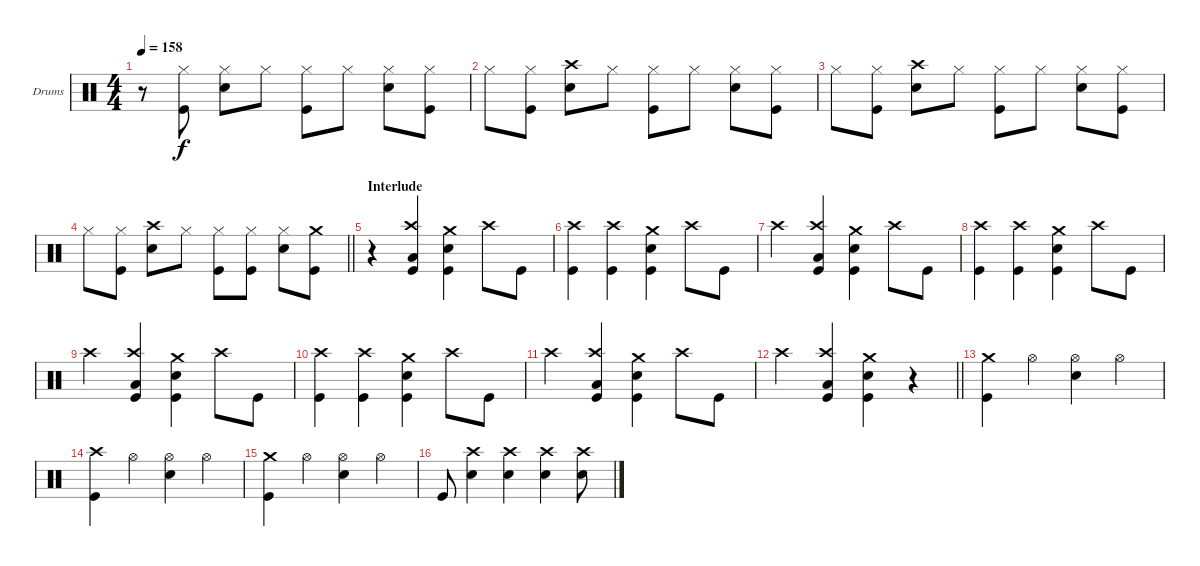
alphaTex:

\bracketExtendMode groupsimilarinstruments
\firstSystemTrackNameOrientation horizontal
\otherSystemsTrackNameOrientation horizontal
\track ("Drumkit" "Drums") {instrument percussion}
\staff {score}
\articulation defaults
\ts (4 4)
\section ("" "")
\tempo 158
\clef neutral
\ks c
r.8{dy f} ("Hi-Hat (closed)" "Kick (hit)").8 ("Hi-Hat (closed)" "Snare (hit) 2").8 "Hi-Hat (closed)".8 ("Hi-Hat (closed)" "Kick (hit)").8 "Hi-Hat (closed)".8 ("Hi-Hat (closed)" "Snare (hit) 2").8 ("Hi-Hat (closed)" "Kick (hit)").8 |
"Hi-Hat (closed)".8 ("Hi-Hat (closed)" "Kick (hit)").8 ("Crash high (hit)" "Snare (hit) 2").8 "Hi-Hat (closed)".8 ("Hi-Hat (closed)" "Kick (hit)").8 "Hi-Hat (closed)".8 ("Hi-Hat (closed)" "Snare (hit) 2").8 ("Hi-Hat (closed)" "Kick (hit)").8 |
"Hi-Hat (closed)".8 ("Hi-Hat (closed)" "Kick (hit)").8 ("Crash high (hit)" "Snare (hit) 2").8 "Hi-Hat (closed)".8 ("Hi-Hat (closed)" "Kick (hit)").8 "Hi-Hat (closed)".8 ("Hi-Hat (closed)" "Snare (hit) 2").8 ("Hi-Hat (closed)" "Kick (hit)").8 |
\barLineRight lightlight "Hi-Hat (closed)".8
("Hi-Hat (closed)" "Kick (hit)").8 ("Crash high (hit)" "Snare (hit) 2").8 "Hi-Hat (closed)".8 ("Hi-Hat (closed)" "Kick (hit)").8 ("Hi-Hat (closed)" "Kick (hit)").8 ("Hi-Hat (closed)" "Snare (hit) 2").8 ("Crash medium (hit)" "Kick (hit)").8 |
\section ("" "Interlude")
r.4 ("Crash high (hit)" "Kick (hit)" "Low Tom (hit)").4 ("Crash medium (hit)" "Snare (hit) 2" "Kick (hit)").4 "Crash high (hit)".8 "Kick (hit)".8 |
("Crash high (hit)" "Kick (hit)").4 ("Crash high (hit)" "Kick (hit)").4 ("Crash medium (hit)" "Snare (hit) 2" "Kick (hit)").4 "Crash high (hit)".8 "Kick (hit)".8 |
"Crash high (hit)".4 ("Crash high (hit)" "Kick (hit)" "Low Tom (hit)").4 ("Crash medium (hit)" "Snare (hit) 2" "Kick (hit)").4 "Crash high (hit)".8 "Kick (hit)".8 |
("Crash high (hit)" "Kick (hit)").4 ("Crash high (hit)" "Kick (hit)").4 ("Crash medium (hit)" "Snare (hit) 2" "Kick (hit)").4 "Crash high (hit)".8 "Kick (hit)".8 |
"Crash high (hit)".4 ("Crash high (hit)" "Kick (hit)" "Low Tom (hit)").4 ("Crash medium (hit)" "Snare (hit) 2" "Kick (hit)").4 "Crash high (hit)".8 "Kick (hit)".8 |
("Crash high (hit)" "Kick (hit)").4 ("Crash high (hit)" "Kick (hit)").4 ("Crash medium (hit)" "Snare (hit) 2" "Kick (hit)").4 "Crash high (hit)".8 "Kick (hit)".8 |
"Crash high (hit)".4 ("Crash high (hit)" "Kick (hit)" "Low Tom (hit)").4 ("Crash medium (hit)" "Snare (hit) 2" "Kick (hit)").4 "Crash high (hit)".8 "Kick (hit)".8 |
\barLineRight lightlight "Crash high (hit)".4
("Crash high (hit)" "Kick (hit)" "Low Tom (hit)").4 ("Crash medium (hit)" "Snare (hit) 2" "Kick (hit)").4 r.4 |
\section ("" "")
("Crash medium (hit)" "Kick (hit)").4 "Hi-Hat (open)".4 ("Hi-Hat (open)" "Snare (hit) 2").4 "Hi-Hat (open)".4 |
("Crash high (hit)" "Kick (hit)").4 "Hi-Hat (open)".4 ("Hi-Hat (open)" "Snare (hit) 2").4 "Hi-Hat (open)".4 |
("Crash medium (hit)" "Kick (hit)").4 "Hi-Hat (open)".4 ("Hi-Hat (open)" "Snare (hit) 2").4 "Hi-Hat (open)".4 |
"Kick (hit)".8 ("Crash high (hit)" "Snare (hit) 2").4 ("Crash high (hit)" "Snare (hit) 2").4 ("Crash high (hit)" "Snare (hit) 2").4 ("Crash high (hit)" "Snare (hit) 2").8
